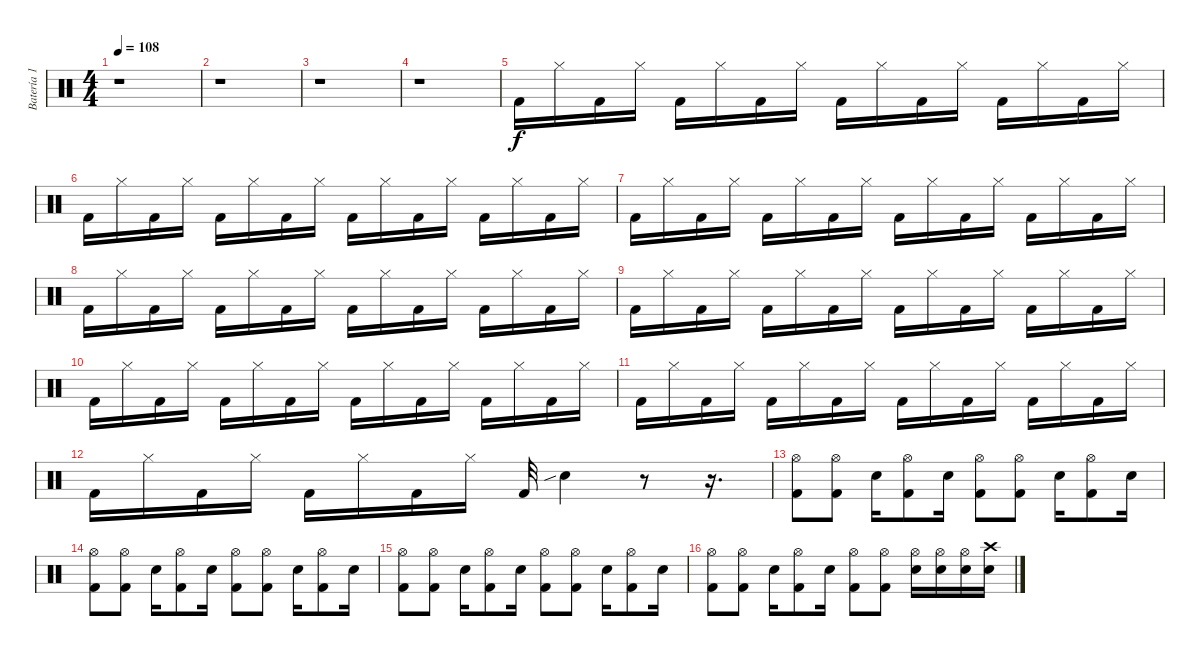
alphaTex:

\track ("Batería 1" "Batería 1") {instrument percussion}
\staff {score}
\articulation defaults
\ts (4 4)
\tempo 108
\clef neutral
\ks c
r.1{dy f} |
r.1 |
r.1 |
r.1 |
"Kick (hit) 2".16 "Hi-Hat (closed)".16 "Kick (hit) 2".16 "Hi-Hat (closed)".16 "Kick (hit) 2".16 "Hi-Hat (closed)".16 "Kick (hit) 2".16 "Hi-Hat (closed)".16 "Kick (hit) 2".16 "Hi-Hat (closed)".16 "Kick (hit) 2".16 "Hi-Hat (closed)".16 "Kick (hit) 2".16 "Hi-Hat (closed)".16 "Kick (hit) 2".16 "Hi-Hat (closed)".16 |
"Kick (hit) 2".16 "Hi-Hat (closed)".16 "Kick (hit) 2".16 "Hi-Hat (closed)".16 "Kick (hit) 2".16 "Hi-Hat (closed)".16 "Kick (hit) 2".16 "Hi-Hat (closed)".16 "Kick (hit) 2".16 "Hi-Hat (closed)".16 "Kick (hit) 2".16 "Hi-Hat (closed)".16 "Kick (hit) 2".16 "Hi-Hat (closed)".16 "Kick (hit) 2".16 "Hi-Hat (closed)".16 |
"Kick (hit) 2".16 "Hi-Hat (closed)".16 "Kick (hit) 2".16 "Hi-Hat (closed)".16 "Kick (hit) 2".16 "Hi-Hat (closed)".16 "Kick (hit) 2".16 "Hi-Hat (closed)".16 "Kick (hit) 2".16 "Hi-Hat (closed)".16 "Kick (hit) 2".16 "Hi-Hat (closed)".16 "Kick (hit) 2".16 "Hi-Hat (closed)".16 "Kick (hit) 2".16 "Hi-Hat (closed)".16 |
"Kick (hit) 2".16 "Hi-Hat (closed)".16 "Kick (hit) 2".16 "Hi-Hat (closed)".16 "Kick (hit) 2".16 "Hi-Hat (closed)".16 "Kick (hit) 2".16 "Hi-Hat (closed)".16 "Kick (hit) 2".16 "Hi-Hat (closed)".16 "Kick (hit) 2".16 "Hi-Hat (closed)".16 "Kick (hit) 2".16 "Hi-Hat (closed)".16 "Kick (hit) 2".16 "Hi-Hat (closed)".16 |
"Kick (hit) 2".16 "Hi-Hat (closed)".16 "Kick (hit) 2".16 "Hi-Hat (closed)".16 "Kick (hit) 2".16 "Hi-Hat (closed)".16 "Kick (hit) 2".16 "Hi-Hat (closed)".16 "Kick (hit) 2".16 "Hi-Hat (closed)".16 "Kick (hit) 2".16 "Hi-Hat (closed)".16 "Kick (hit) 2".16 "Hi-Hat (closed)".16 "Kick (hit) 2".16 "Hi-Hat (closed)".16 |
"Kick (hit) 2".16 "Hi-Hat (closed)".16 "Kick (hit) 2".16 "Hi-Hat (closed)".16 "Kick (hit) 2".16 "Hi-Hat (closed)".16 "Kick (hit) 2".16 "Hi-Hat (closed)".16 "Kick (hit) 2".16 "Hi-Hat (closed)".16 "Kick (hit) 2".16 "Hi-Hat (closed)".16 "Kick (hit) 2".16 "Hi-Hat (closed)".16 "Kick (hit) 2".16 "Hi-Hat (closed)".16 |
"Kick (hit) 2".16 "Hi-Hat (closed)".16 "Kick (hit) 2".16 "Hi-Hat (closed)".16 "Kick (hit) 2".16 "Hi-Hat (closed)".16 "Kick (hit) 2".16 "Hi-Hat (closed)".16 "Kick (hit) 2".16 "Hi-Hat (closed)".16 "Kick (hit) 2".16 "Hi-Hat (closed)".16 "Kick (hit) 2".16 "Hi-Hat (closed)".16 "Kick (hit) 2".16 "Hi-Hat (closed)".16 |
"Kick (hit) 2".16 "Hi-Hat (closed)".16 "Kick (hit) 2".16 "Hi-Hat (closed)".16 "Kick (hit) 2".16 "Hi-Hat (closed)".16 "Kick (hit) 2".16 "Hi-Hat (closed)".16 "Kick (hit) 2".32 "Snare (hit) 2"{sib}.4 r.8 r.16{d} |
("Hi-Hat (open)" "Kick (hit) 2").8 ("Hi-Hat (open)" "Kick (hit) 2").8 "Snare (hit) 2".16 ("Hi-Hat (open)" "Kick (hit) 2").8 "Snare (hit) 2".16 ("Hi-Hat (open)" "Kick (hit) 2").8 ("Hi-Hat (open)" "Kick (hit) 2").8 "Snare (hit) 2".16 ("Hi-Hat (open)" "Kick (hit) 2").8 "Snare (hit) 2".16 |
("Hi-Hat (open)" "Kick (hit) 2").8 ("Hi-Hat (open)" "Kick (hit) 2").8 "Snare (hit) 2".16 ("Hi-Hat (open)" "Kick (hit) 2").8 "Snare (hit) 2".16 ("Hi-Hat (open)" "Kick (hit) 2").8 ("Hi-Hat (open)" "Kick (hit) 2").8 "Snare (hit) 2".16 ("Hi-Hat (open)" "Kick (hit) 2").8 "Snare (hit) 2".16 |
("Hi-Hat (open)" "Kick (hit) 2").8 ("Hi-Hat (open)" "Kick (hit) 2").8 "Snare (hit) 2".16 ("Hi-Hat (open)" "Kick (hit) 2").8 "Snare (hit) 2".16 ("Hi-Hat (open)" "Kick (hit) 2").8 ("Hi-Hat (open)" "Kick (hit) 2").8 "Snare (hit) 2".16 ("Hi-Hat (open)" "Kick (hit) 2").8 "Snare (hit) 2".16 |
("Hi-Hat (open)" "Kick (hit) 2").8 ("Hi-Hat (open)" "Kick (hit) 2").8 "Snare (hit) 2".16 ("Hi-Hat (open)" "Kick (hit) 2").8 "Snare (hit) 2".16 ("Hi-Hat (open)" "Kick (hit) 2").8 ("Hi-Hat (open)" "Kick (hit) 2").8 ("Hi-Hat (open)" "Snare (hit) 2").16 ("Hi-Hat (open)" "Snare (hit) 2").16 ("Hi-Hat (open)" "Snare (hit) 2").16 ("Crash high (hit)" "Snare (hit) 2").16
